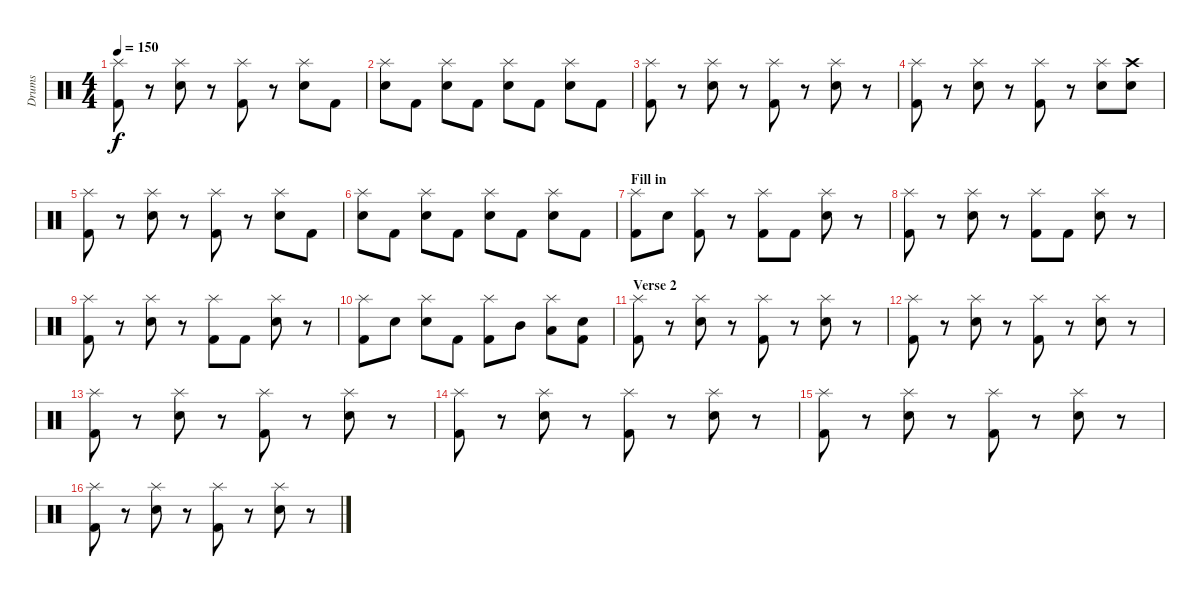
\track ("Drums" "Drums") {instrument percussion}
\staff {score}
\articulation defaults
\ts (4 4)
\tempo 150
\clef neutral
\ks c
("Splash (hit)" "Kick (hit) 2").8{dy f} r.8 ("Splash (hit)" "Electric Snare (hit)").8 r.8 ("Splash (hit)" "Kick (hit) 2").8 r.8 ("Splash (hit)" "Electric Snare (hit)").8 "Kick (hit) 2".8 |
("Splash (hit)" "Electric Snare (hit)").8 "Kick (hit) 2".8 ("Splash (hit)" "Electric Snare (hit)").8 "Kick (hit) 2".8 ("Splash (hit)" "Electric Snare (hit)").8 "Kick (hit) 2".8 ("Splash (hit)" "Electric Snare (hit)").8 "Kick (hit) 2".8 |
("Splash (hit)" "Kick (hit) 2").8 r.8 ("Splash (hit)" "Electric Snare (hit)").8 r.8 ("Splash (hit)" "Kick (hit) 2").8 r.8 ("Splash (hit)" "Electric Snare (hit)").8 r.8 |
("Splash (hit)" "Kick (hit) 2").8 r.8 ("Splash (hit)" "Electric Snare (hit)").8 r.8 ("Splash (hit)" "Kick (hit) 2").8 r.8 ("Splash (hit)" "Electric Snare (hit)").8 ("Crash high (hit)" "Electric Snare (hit)").8 |
("Splash (hit)" "Kick (hit) 2").8 r.8 ("Splash (hit)" "Electric Snare (hit)").8 r.8 ("Splash (hit)" "Kick (hit) 2").8 r.8 ("Splash (hit)" "Electric Snare (hit)").8 "Kick (hit) 2".8 |
("Splash (hit)" "Electric Snare (hit)").8 "Kick (hit) 2".8 ("Splash (hit)" "Electric Snare (hit)").8 "Kick (hit) 2".8 ("Splash (hit)" "Electric Snare (hit)").8 "Kick (hit) 2".8 ("Splash (hit)" "Electric Snare (hit)").8 "Kick (hit) 2".8 |
\section ("" "Fill in")
("Splash (hit)" "Kick (hit) 2").8 "Electric Snare (hit)".8 ("Splash (hit)" "Kick (hit) 2").8 r.8 ("Splash (hit)" "Kick (hit) 2").8 "Kick (hit) 2".8 ("Splash (hit)" "Electric Snare (hit)").8 r.8 |
("Splash (hit)" "Kick (hit) 2").8 r.8 ("Splash (hit)" "Electric Snare (hit)").8 r.8 ("Splash (hit)" "Kick (hit) 2").8 "Kick (hit) 2".8 ("Splash (hit)" "Electric Snare (hit)").8 r.8 |
("Splash (hit)" "Kick (hit) 2").8 r.8 ("Splash (hit)" "Electric Snare (hit)").8 r.8 ("Splash (hit)" "Kick (hit) 2").8 "Kick (hit) 2".8 ("Splash (hit)" "Electric Snare (hit)").8 r.8 |
("Splash (hit)" "Kick (hit) 2").8 "Electric Snare (hit)".8 ("Splash (hit)" "Electric Snare (hit)").8 "Kick (hit) 2".8 ("Splash (hit)" "Kick (hit) 2").8 "Mid Tom (hit)".8 ("Splash (hit)" "Low Tom (hit)").8 ("Electric Snare (hit)" "Kick (hit) 2").8 |
\section ("" "Verse 2")
("Splash (hit)" "Kick (hit) 2").8 r.8 ("Splash (hit)" "Electric Snare (hit)").8 r.8 ("Splash (hit)" "Kick (hit) 2").8 r.8 ("Splash (hit)" "Electric Snare (hit)").8 r.8 |
("Splash (hit)" "Kick (hit) 2").8 r.8 ("Splash (hit)" "Electric Snare (hit)").8 r.8 ("Splash (hit)" "Kick (hit) 2").8 r.8 ("Splash (hit)" "Electric Snare (hit)").8 r.8 |
("Splash (hit)" "Kick (hit) 2").8 r.8 ("Splash (hit)" "Electric Snare (hit)").8 r.8 ("Splash (hit)" "Kick (hit) 2").8 r.8 ("Splash (hit)" "Electric Snare (hit)").8 r.8 |
("Splash (hit)" "Kick (hit) 2").8 r.8 ("Splash (hit)" "Electric Snare (hit)").8 r.8 ("Splash (hit)" "Kick (hit) 2").8 r.8 ("Splash (hit)" "Electric Snare (hit)").8 r.8 |
("Splash (hit)" "Kick (hit) 2").8 r.8 ("Splash (hit)" "Electric Snare (hit)").8 r.8 ("Splash (hit)" "Kick (hit) 2").8 r.8 ("Splash (hit)" "Electric Snare (hit)").8 r.8 |
("Splash (hit)" "Kick (hit) 2").8 r.8 ("Splash (hit)" "Electric Snare (hit)").8 r.8 ("Splash (hit)" "Kick (hit) 2").8 r.8 ("Splash (hit)" "Electric Snare (hit)").8 r.8
